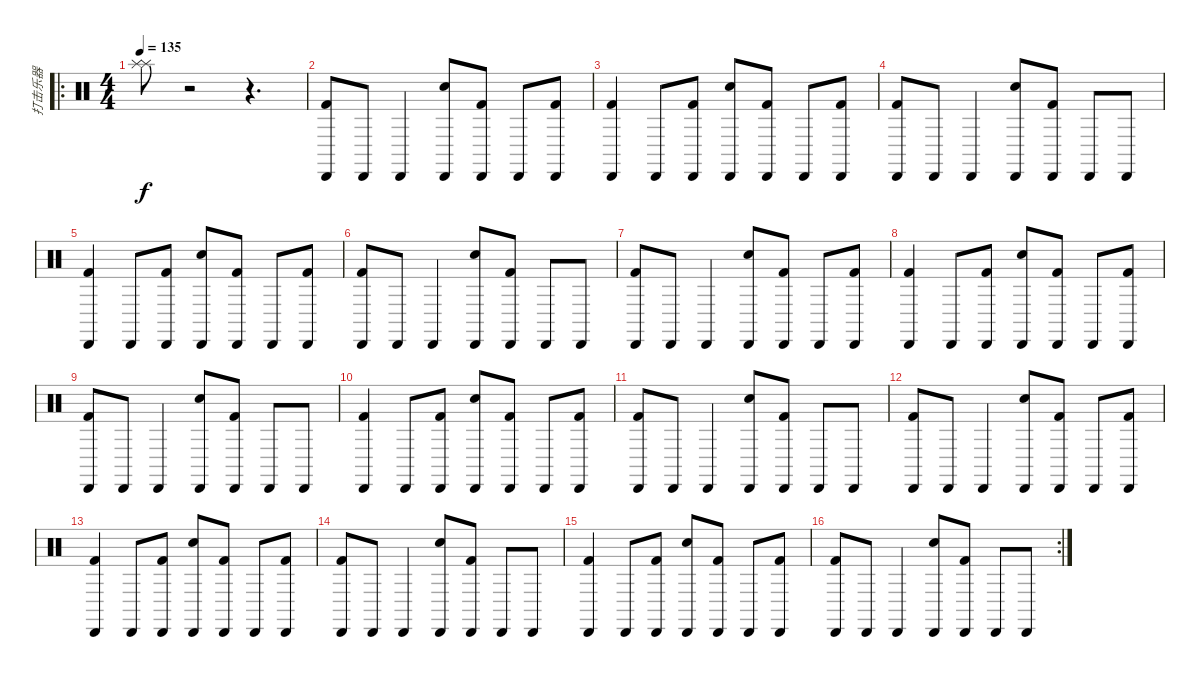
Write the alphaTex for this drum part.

\track ("打击乐器" "打击乐器") {instrument percussion}
\staff {score}
\articulation defaults
\ro
\ts (4 4)
\tempo 135
\clef neutral
\ks c
("Splash (hit)" "Splash (hit)").8{dy f} r.2 r.4{d} |
("Cabasa (hit)" "Kick (hit) 2").8 "Cabasa (hit)".8 "Cabasa (hit)".4 ("Snare (hit) 2" "Cabasa (hit)").8 ("Cabasa (hit)" "Kick (hit) 2").8 "Cabasa (hit)".8 ("Cabasa (hit)" "Kick (hit) 2").8 |
("Cabasa (hit)" "Kick (hit) 2").4 "Cabasa (hit)".8 ("Cabasa (hit)" "Kick (hit) 2").8 ("Snare (hit) 2" "Cabasa (hit)").8 ("Cabasa (hit)" "Kick (hit) 2").8 "Cabasa (hit)".8 ("Cabasa (hit)" "Kick (hit) 2").8 |
("Cabasa (hit)" "Kick (hit) 2").8 "Cabasa (hit)".8 "Cabasa (hit)".4 ("Snare (hit) 2" "Cabasa (hit)").8 ("Cabasa (hit)" "Kick (hit) 2").8 "Cabasa (hit)".8 "Cabasa (hit)".8 |
("Cabasa (hit)" "Kick (hit) 2").4 "Cabasa (hit)".8 ("Cabasa (hit)" "Kick (hit) 2").8 ("Snare (hit) 2" "Cabasa (hit)").8 ("Cabasa (hit)" "Kick (hit) 2").8 "Cabasa (hit)".8 ("Cabasa (hit)" "Kick (hit) 2").8 |
("Cabasa (hit)" "Kick (hit) 2").8 "Cabasa (hit)".8 "Cabasa (hit)".4 ("Snare (hit) 2" "Cabasa (hit)").8 ("Cabasa (hit)" "Kick (hit) 2").8 "Cabasa (hit)".8 "Cabasa (hit)".8 |
("Cabasa (hit)" "Kick (hit) 2").8 "Cabasa (hit)".8 "Cabasa (hit)".4 ("Snare (hit) 2" "Cabasa (hit)").8 ("Cabasa (hit)" "Kick (hit) 2").8 "Cabasa (hit)".8 ("Cabasa (hit)" "Kick (hit) 2").8 |
("Cabasa (hit)" "Kick (hit) 2").4 "Cabasa (hit)".8 ("Cabasa (hit)" "Kick (hit) 2").8 ("Snare (hit) 2" "Cabasa (hit)").8 ("Cabasa (hit)" "Kick (hit) 2").8 "Cabasa (hit)".8 ("Cabasa (hit)" "Kick (hit) 2").8 |
("Cabasa (hit)" "Kick (hit) 2").8 "Cabasa (hit)".8 "Cabasa (hit)".4 ("Snare (hit) 2" "Cabasa (hit)").8 ("Cabasa (hit)" "Kick (hit) 2").8 "Cabasa (hit)".8 "Cabasa (hit)".8 |
("Cabasa (hit)" "Kick (hit) 2").4 "Cabasa (hit)".8 ("Cabasa (hit)" "Kick (hit) 2").8 ("Snare (hit) 2" "Cabasa (hit)").8 ("Cabasa (hit)" "Kick (hit) 2").8 "Cabasa (hit)".8 ("Cabasa (hit)" "Kick (hit) 2").8 |
("Cabasa (hit)" "Kick (hit) 2").8 "Cabasa (hit)".8 "Cabasa (hit)".4 ("Snare (hit) 2" "Cabasa (hit)").8 ("Cabasa (hit)" "Kick (hit) 2").8 "Cabasa (hit)".8 "Cabasa (hit)".8 |
("Cabasa (hit)" "Kick (hit) 2").8 "Cabasa (hit)".8 "Cabasa (hit)".4 ("Snare (hit) 2" "Cabasa (hit)").8 ("Cabasa (hit)" "Kick (hit) 2").8 "Cabasa (hit)".8 ("Cabasa (hit)" "Kick (hit) 2").8 |
("Cabasa (hit)" "Kick (hit) 2").4 "Cabasa (hit)".8 ("Cabasa (hit)" "Kick (hit) 2").8 ("Snare (hit) 2" "Cabasa (hit)").8 ("Cabasa (hit)" "Kick (hit) 2").8 "Cabasa (hit)".8 ("Cabasa (hit)" "Kick (hit) 2").8 |
("Cabasa (hit)" "Kick (hit) 2").8 "Cabasa (hit)".8 "Cabasa (hit)".4 ("Snare (hit) 2" "Cabasa (hit)").8 ("Cabasa (hit)" "Kick (hit) 2").8 "Cabasa (hit)".8 "Cabasa (hit)".8 |
("Cabasa (hit)" "Kick (hit) 2").4 "Cabasa (hit)".8 ("Cabasa (hit)" "Kick (hit) 2").8 ("Snare (hit) 2" "Cabasa (hit)").8 ("Cabasa (hit)" "Kick (hit) 2").8 "Cabasa (hit)".8 ("Cabasa (hit)" "Kick (hit) 2").8 |
\rc 2
("Cabasa (hit)" "Kick (hit) 2").8 "Cabasa (hit)".8 "Cabasa (hit)".4 ("Snare (hit) 2" "Cabasa (hit)").8 ("Cabasa (hit)" "Kick (hit) 2").8 "Cabasa (hit)".8 "Cabasa (hit)".8
